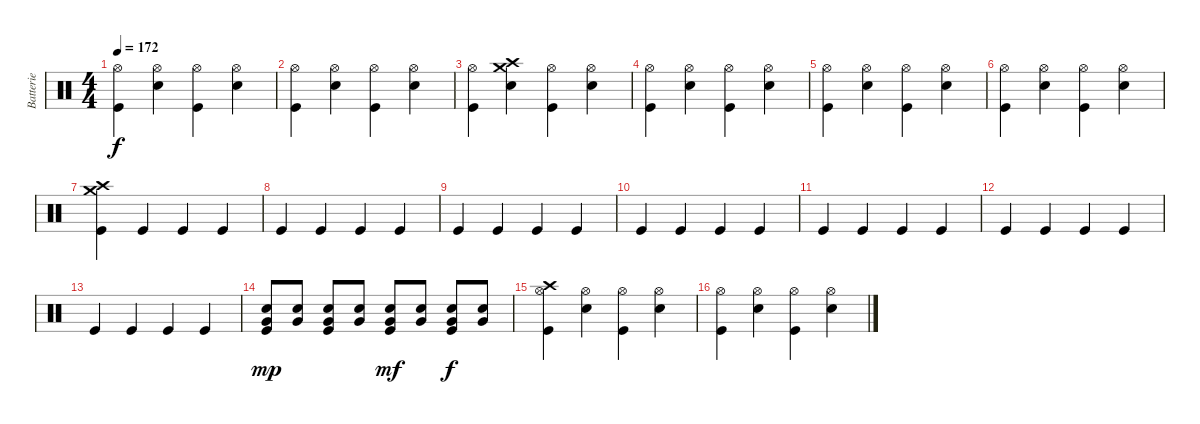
\track ("Batterie" "Batterie") {instrument percussion}
\staff {score}
\articulation defaults
\ts (4 4)
\tempo 172
\clef neutral
\ks c
("Hi-Hat (open)" "Kick (hit)").4{dy f} ("Hi-Hat (open)" "Snare (hit) 2").4 ("Hi-Hat (open)" "Kick (hit)").4 ("Hi-Hat (open)" "Snare (hit) 2").4 |
("Hi-Hat (open)" "Kick (hit)").4 ("Hi-Hat (open)" "Snare (hit) 2").4 ("Hi-Hat (open)" "Kick (hit)").4 ("Hi-Hat (open)" "Snare (hit) 2").4 |
("Hi-Hat (open)" "Kick (hit)").4 ("Crash medium (hit)" "Crash high (hit)" "Snare (hit) 2").4 ("Hi-Hat (open)" "Kick (hit)").4 ("Hi-Hat (open)" "Snare (hit) 2").4 |
("Hi-Hat (open)" "Kick (hit)").4 ("Hi-Hat (open)" "Snare (hit) 2").4 ("Hi-Hat (open)" "Kick (hit)").4 ("Hi-Hat (open)" "Snare (hit) 2").4 |
("Hi-Hat (open)" "Kick (hit)").4 ("Hi-Hat (open)" "Snare (hit) 2").4 ("Hi-Hat (open)" "Kick (hit)").4 ("Hi-Hat (open)" "Snare (hit) 2").4 |
("Hi-Hat (open)" "Kick (hit)").4 ("Hi-Hat (open)" "Snare (hit) 2").4 ("Hi-Hat (open)" "Kick (hit)").4 ("Hi-Hat (open)" "Snare (hit) 2").4 |
("Crash medium (hit)" "Crash high (hit)" "Kick (hit)").4 "Kick (hit)".4 "Kick (hit)".4 "Kick (hit)".4 |
"Kick (hit)".4 "Kick (hit)".4 "Kick (hit)".4 "Kick (hit)".4 |
"Kick (hit)".4 "Kick (hit)".4 "Kick (hit)".4 "Kick (hit)".4 |
"Kick (hit)".4 "Kick (hit)".4 "Kick (hit)".4 "Kick (hit)".4 |
"Kick (hit)".4 "Kick (hit)".4 "Kick (hit)".4 "Kick (hit)".4 |
"Kick (hit)".4 "Kick (hit)".4 "Kick (hit)".4 "Kick (hit)".4 |
"Kick (hit)".4 "Kick (hit)".4 "Kick (hit)".4 "Kick (hit)".4 |
("Snare (hit) 2" "Kick (hit)" "Very Low Tom (hit)").8{dy mp} ("Snare (hit) 2" "Very Low Tom (hit)").8 ("Snare (hit) 2" "Kick (hit)" "Very Low Tom (hit)").8 ("Snare (hit) 2" "Very Low Tom (hit)").8 ("Snare (hit) 2" "Kick (hit)" "Very Low Tom (hit)").8{dy mf} ("Snare (hit) 2" "Very Low Tom (hit)").8 ("Snare (hit) 2" "Kick (hit)" "Very Low Tom (hit)").8{dy f} ("Snare (hit) 2" "Very Low Tom (hit)").8 |
("Hi-Hat (open)" "Crash high (hit)" "Kick (hit)").4 ("Hi-Hat (open)" "Snare (hit) 2").4 ("Hi-Hat (open)" "Kick (hit)").4 ("Hi-Hat (open)" "Snare (hit) 2").4 |
("Hi-Hat (open)" "Kick (hit)").4 ("Hi-Hat (open)" "Snare (hit) 2").4 ("Hi-Hat (open)" "Kick (hit)").4 ("Hi-Hat (open)" "Snare (hit) 2").4
